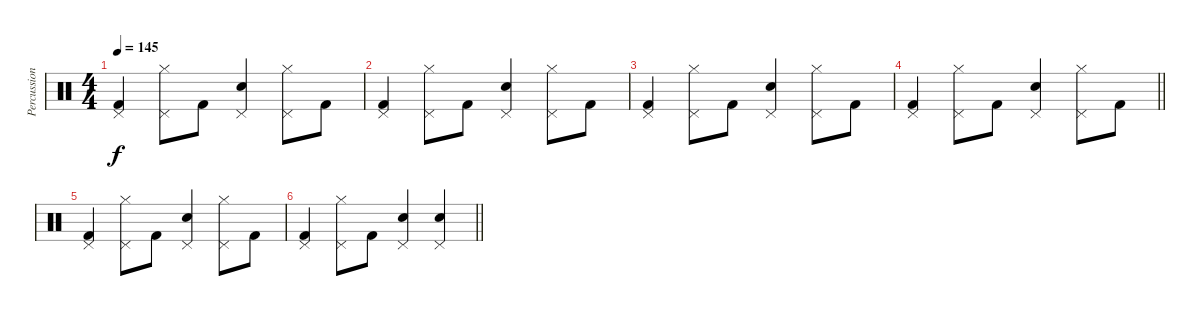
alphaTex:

\track ("Percussion" "Percussion") {instrument percussion}
\staff {score}
\articulation defaults
\ts (4 4)
\tempo 145
\clef neutral
\ks c
("Kick (hit) 2" "Pedal Hi-Hat (hit)").4{dy f} ("Hi-Hat (closed)" "Pedal Hi-Hat (hit)").8 "Kick (hit) 2".8 ("Snare (hit) 2" "Pedal Hi-Hat (hit)").4 ("Hi-Hat (closed)" "Pedal Hi-Hat (hit)").8 "Kick (hit) 2".8 |
("Kick (hit) 2" "Pedal Hi-Hat (hit)").4 ("Hi-Hat (closed)" "Pedal Hi-Hat (hit)").8 "Kick (hit) 2".8 ("Snare (hit) 2" "Pedal Hi-Hat (hit)").4 ("Hi-Hat (closed)" "Pedal Hi-Hat (hit)").8 "Kick (hit) 2".8 |
("Kick (hit) 2" "Pedal Hi-Hat (hit)").4 ("Hi-Hat (closed)" "Pedal Hi-Hat (hit)").8 "Kick (hit) 2".8 ("Snare (hit) 2" "Pedal Hi-Hat (hit)").4 ("Hi-Hat (closed)" "Pedal Hi-Hat (hit)").8 "Kick (hit) 2".8 |
\barLineRight lightlight
("Kick (hit) 2" "Pedal Hi-Hat (hit)").4 ("Hi-Hat (closed)" "Pedal Hi-Hat (hit)").8 "Kick (hit) 2".8 ("Snare (hit) 2" "Pedal Hi-Hat (hit)").4 ("Hi-Hat (closed)" "Pedal Hi-Hat (hit)").8 "Kick (hit) 2".8 |
("Kick (hit) 2" "Pedal Hi-Hat (hit)").4 ("Hi-Hat (closed)" "Pedal Hi-Hat (hit)").8 "Kick (hit) 2".8 ("Snare (hit) 2" "Pedal Hi-Hat (hit)").4 ("Hi-Hat (closed)" "Pedal Hi-Hat (hit)").8 "Kick (hit) 2".8 |
\barLineRight lightlight
("Kick (hit) 2" "Pedal Hi-Hat (hit)").4 ("Hi-Hat (closed)" "Pedal Hi-Hat (hit)").8 "Kick (hit) 2".8 ("Snare (hit) 2" "Pedal Hi-Hat (hit)").4 ("Snare (hit) 2" "Pedal Hi-Hat (hit)").4
